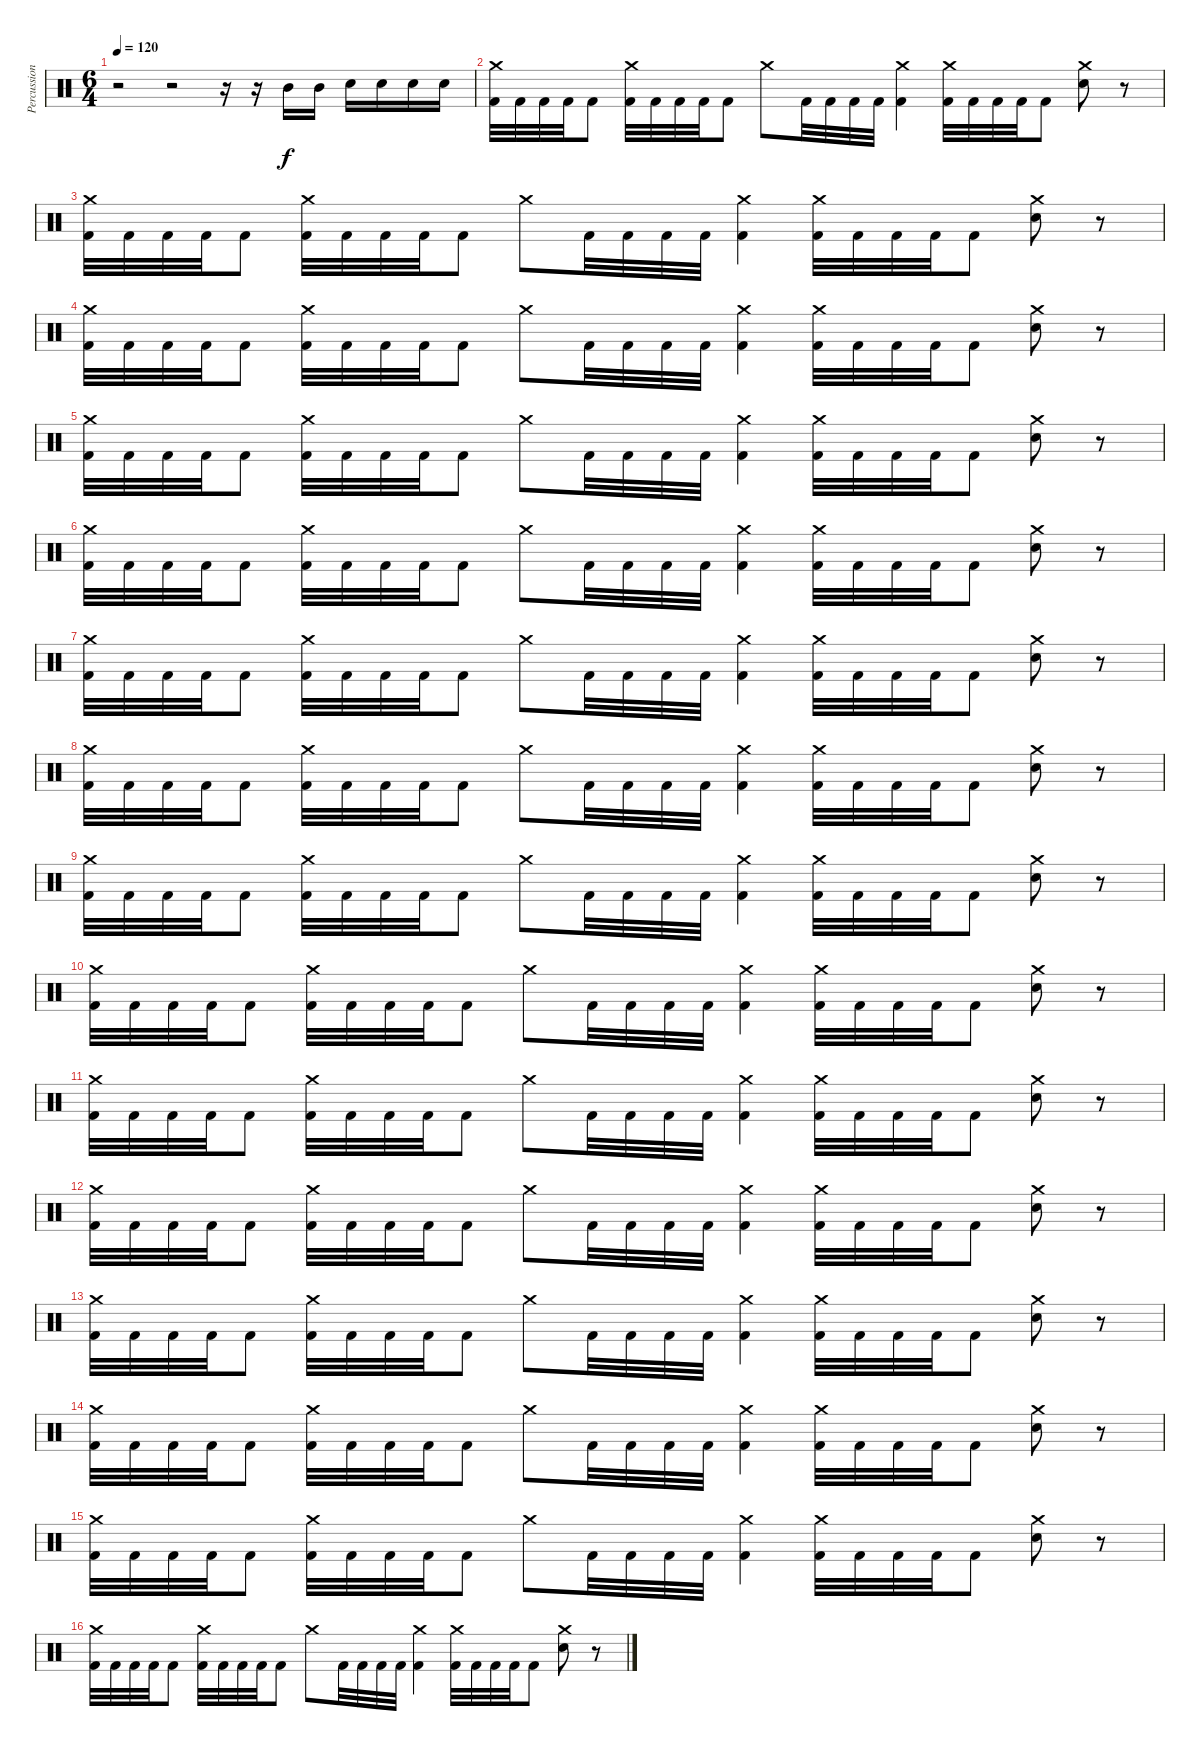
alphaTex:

\track ("Percussion" "Percussion") {instrument percussion}
\staff {score}
\articulation defaults
\ts (6 4)
\tempo 120
\clef neutral
\ks c
r.2{dy f} r.2 r.16 r.16 "Mid Tom (hit)".16 "Mid Tom (hit)".16 "Electric Snare (hit)".16 "Electric Snare (hit)".16 "Electric Snare (hit)".16 "Electric Snare (hit)".16 |
("Crash medium (hit)" "Kick (hit) 2").32 "Kick (hit) 2".32 "Kick (hit) 2".32 "Kick (hit) 2".32 "Kick (hit) 2".8 ("Crash medium (hit)" "Kick (hit) 2").32 "Kick (hit) 2".32 "Kick (hit) 2".32 "Kick (hit) 2".32 "Kick (hit) 2".8 "Crash medium (hit)".8 "Kick (hit) 2".32 "Kick (hit) 2".32 "Kick (hit) 2".32 "Kick (hit) 2".32 ("Crash medium (hit)" "Kick (hit) 2").4 ("Crash medium (hit)" "Kick (hit) 2").32 "Kick (hit) 2".32 "Kick (hit) 2".32 "Kick (hit) 2".32 "Kick (hit) 2".8 ("Crash medium (hit)" "Electric Snare (hit)").8 r.8 |
("Crash medium (hit)" "Kick (hit) 2").32 "Kick (hit) 2".32 "Kick (hit) 2".32 "Kick (hit) 2".32 "Kick (hit) 2".8 ("Crash medium (hit)" "Kick (hit) 2").32 "Kick (hit) 2".32 "Kick (hit) 2".32 "Kick (hit) 2".32 "Kick (hit) 2".8 "Crash medium (hit)".8 "Kick (hit) 2".32 "Kick (hit) 2".32 "Kick (hit) 2".32 "Kick (hit) 2".32 ("Crash medium (hit)" "Kick (hit) 2").4 ("Crash medium (hit)" "Kick (hit) 2").32 "Kick (hit) 2".32 "Kick (hit) 2".32 "Kick (hit) 2".32 "Kick (hit) 2".8 ("Crash medium (hit)" "Electric Snare (hit)").8 r.8 |
("Crash medium (hit)" "Kick (hit) 2").32 "Kick (hit) 2".32 "Kick (hit) 2".32 "Kick (hit) 2".32 "Kick (hit) 2".8 ("Crash medium (hit)" "Kick (hit) 2").32 "Kick (hit) 2".32 "Kick (hit) 2".32 "Kick (hit) 2".32 "Kick (hit) 2".8 "Crash medium (hit)".8 "Kick (hit) 2".32 "Kick (hit) 2".32 "Kick (hit) 2".32 "Kick (hit) 2".32 ("Crash medium (hit)" "Kick (hit) 2").4 ("Crash medium (hit)" "Kick (hit) 2").32 "Kick (hit) 2".32 "Kick (hit) 2".32 "Kick (hit) 2".32 "Kick (hit) 2".8 ("Crash medium (hit)" "Electric Snare (hit)").8 r.8 |
("Crash medium (hit)" "Kick (hit) 2").32 "Kick (hit) 2".32 "Kick (hit) 2".32 "Kick (hit) 2".32 "Kick (hit) 2".8 ("Crash medium (hit)" "Kick (hit) 2").32 "Kick (hit) 2".32 "Kick (hit) 2".32 "Kick (hit) 2".32 "Kick (hit) 2".8 "Crash medium (hit)".8 "Kick (hit) 2".32 "Kick (hit) 2".32 "Kick (hit) 2".32 "Kick (hit) 2".32 ("Crash medium (hit)" "Kick (hit) 2").4 ("Crash medium (hit)" "Kick (hit) 2").32 "Kick (hit) 2".32 "Kick (hit) 2".32 "Kick (hit) 2".32 "Kick (hit) 2".8 ("Crash medium (hit)" "Electric Snare (hit)").8 r.8 |
("Crash medium (hit)" "Kick (hit) 2").32 "Kick (hit) 2".32 "Kick (hit) 2".32 "Kick (hit) 2".32 "Kick (hit) 2".8 ("Crash medium (hit)" "Kick (hit) 2").32 "Kick (hit) 2".32 "Kick (hit) 2".32 "Kick (hit) 2".32 "Kick (hit) 2".8 "Crash medium (hit)".8 "Kick (hit) 2".32 "Kick (hit) 2".32 "Kick (hit) 2".32 "Kick (hit) 2".32 ("Crash medium (hit)" "Kick (hit) 2").4 ("Crash medium (hit)" "Kick (hit) 2").32 "Kick (hit) 2".32 "Kick (hit) 2".32 "Kick (hit) 2".32 "Kick (hit) 2".8 ("Crash medium (hit)" "Electric Snare (hit)").8 r.8 |
("Crash medium (hit)" "Kick (hit) 2").32 "Kick (hit) 2".32 "Kick (hit) 2".32 "Kick (hit) 2".32 "Kick (hit) 2".8 ("Crash medium (hit)" "Kick (hit) 2").32 "Kick (hit) 2".32 "Kick (hit) 2".32 "Kick (hit) 2".32 "Kick (hit) 2".8 "Crash medium (hit)".8 "Kick (hit) 2".32 "Kick (hit) 2".32 "Kick (hit) 2".32 "Kick (hit) 2".32 ("Crash medium (hit)" "Kick (hit) 2").4 ("Crash medium (hit)" "Kick (hit) 2").32 "Kick (hit) 2".32 "Kick (hit) 2".32 "Kick (hit) 2".32 "Kick (hit) 2".8 ("Crash medium (hit)" "Electric Snare (hit)").8 r.8 |
("Crash medium (hit)" "Kick (hit) 2").32 "Kick (hit) 2".32 "Kick (hit) 2".32 "Kick (hit) 2".32 "Kick (hit) 2".8 ("Crash medium (hit)" "Kick (hit) 2").32 "Kick (hit) 2".32 "Kick (hit) 2".32 "Kick (hit) 2".32 "Kick (hit) 2".8 "Crash medium (hit)".8 "Kick (hit) 2".32 "Kick (hit) 2".32 "Kick (hit) 2".32 "Kick (hit) 2".32 ("Crash medium (hit)" "Kick (hit) 2").4 ("Crash medium (hit)" "Kick (hit) 2").32 "Kick (hit) 2".32 "Kick (hit) 2".32 "Kick (hit) 2".32 "Kick (hit) 2".8 ("Crash medium (hit)" "Electric Snare (hit)").8 r.8 |
("Crash medium (hit)" "Kick (hit) 2").32 "Kick (hit) 2".32 "Kick (hit) 2".32 "Kick (hit) 2".32 "Kick (hit) 2".8 ("Crash medium (hit)" "Kick (hit) 2").32 "Kick (hit) 2".32 "Kick (hit) 2".32 "Kick (hit) 2".32 "Kick (hit) 2".8 "Crash medium (hit)".8 "Kick (hit) 2".32 "Kick (hit) 2".32 "Kick (hit) 2".32 "Kick (hit) 2".32 ("Crash medium (hit)" "Kick (hit) 2").4 ("Crash medium (hit)" "Kick (hit) 2").32 "Kick (hit) 2".32 "Kick (hit) 2".32 "Kick (hit) 2".32 "Kick (hit) 2".8 ("Crash medium (hit)" "Electric Snare (hit)").8 r.8 |
("Crash medium (hit)" "Kick (hit) 2").32 "Kick (hit) 2".32 "Kick (hit) 2".32 "Kick (hit) 2".32 "Kick (hit) 2".8 ("Crash medium (hit)" "Kick (hit) 2").32 "Kick (hit) 2".32 "Kick (hit) 2".32 "Kick (hit) 2".32 "Kick (hit) 2".8 "Crash medium (hit)".8 "Kick (hit) 2".32 "Kick (hit) 2".32 "Kick (hit) 2".32 "Kick (hit) 2".32 ("Crash medium (hit)" "Kick (hit) 2").4 ("Crash medium (hit)" "Kick (hit) 2").32 "Kick (hit) 2".32 "Kick (hit) 2".32 "Kick (hit) 2".32 "Kick (hit) 2".8 ("Crash medium (hit)" "Electric Snare (hit)").8 r.8 |
("Crash medium (hit)" "Kick (hit) 2").32 "Kick (hit) 2".32 "Kick (hit) 2".32 "Kick (hit) 2".32 "Kick (hit) 2".8 ("Crash medium (hit)" "Kick (hit) 2").32 "Kick (hit) 2".32 "Kick (hit) 2".32 "Kick (hit) 2".32 "Kick (hit) 2".8 "Crash medium (hit)".8 "Kick (hit) 2".32 "Kick (hit) 2".32 "Kick (hit) 2".32 "Kick (hit) 2".32 ("Crash medium (hit)" "Kick (hit) 2").4 ("Crash medium (hit)" "Kick (hit) 2").32 "Kick (hit) 2".32 "Kick (hit) 2".32 "Kick (hit) 2".32 "Kick (hit) 2".8 ("Crash medium (hit)" "Electric Snare (hit)").8 r.8 |
("Crash medium (hit)" "Kick (hit) 2").32 "Kick (hit) 2".32 "Kick (hit) 2".32 "Kick (hit) 2".32 "Kick (hit) 2".8 ("Crash medium (hit)" "Kick (hit) 2").32 "Kick (hit) 2".32 "Kick (hit) 2".32 "Kick (hit) 2".32 "Kick (hit) 2".8 "Crash medium (hit)".8 "Kick (hit) 2".32 "Kick (hit) 2".32 "Kick (hit) 2".32 "Kick (hit) 2".32 ("Crash medium (hit)" "Kick (hit) 2").4 ("Crash medium (hit)" "Kick (hit) 2").32 "Kick (hit) 2".32 "Kick (hit) 2".32 "Kick (hit) 2".32 "Kick (hit) 2".8 ("Crash medium (hit)" "Electric Snare (hit)").8 r.8 |
("Crash medium (hit)" "Kick (hit) 2").32 "Kick (hit) 2".32 "Kick (hit) 2".32 "Kick (hit) 2".32 "Kick (hit) 2".8 ("Crash medium (hit)" "Kick (hit) 2").32 "Kick (hit) 2".32 "Kick (hit) 2".32 "Kick (hit) 2".32 "Kick (hit) 2".8 "Crash medium (hit)".8 "Kick (hit) 2".32 "Kick (hit) 2".32 "Kick (hit) 2".32 "Kick (hit) 2".32 ("Crash medium (hit)" "Kick (hit) 2").4 ("Crash medium (hit)" "Kick (hit) 2").32 "Kick (hit) 2".32 "Kick (hit) 2".32 "Kick (hit) 2".32 "Kick (hit) 2".8 ("Crash medium (hit)" "Electric Snare (hit)").8 r.8 |
("Crash medium (hit)" "Kick (hit) 2").32 "Kick (hit) 2".32 "Kick (hit) 2".32 "Kick (hit) 2".32 "Kick (hit) 2".8 ("Crash medium (hit)" "Kick (hit) 2").32 "Kick (hit) 2".32 "Kick (hit) 2".32 "Kick (hit) 2".32 "Kick (hit) 2".8 "Crash medium (hit)".8 "Kick (hit) 2".32 "Kick (hit) 2".32 "Kick (hit) 2".32 "Kick (hit) 2".32 ("Crash medium (hit)" "Kick (hit) 2").4 ("Crash medium (hit)" "Kick (hit) 2").32 "Kick (hit) 2".32 "Kick (hit) 2".32 "Kick (hit) 2".32 "Kick (hit) 2".8 ("Crash medium (hit)" "Electric Snare (hit)").8 r.8 |
("Crash medium (hit)" "Kick (hit) 2").32 "Kick (hit) 2".32 "Kick (hit) 2".32 "Kick (hit) 2".32 "Kick (hit) 2".8 ("Crash medium (hit)" "Kick (hit) 2").32 "Kick (hit) 2".32 "Kick (hit) 2".32 "Kick (hit) 2".32 "Kick (hit) 2".8 "Crash medium (hit)".8 "Kick (hit) 2".32 "Kick (hit) 2".32 "Kick (hit) 2".32 "Kick (hit) 2".32 ("Crash medium (hit)" "Kick (hit) 2").4 ("Crash medium (hit)" "Kick (hit) 2").32 "Kick (hit) 2".32 "Kick (hit) 2".32 "Kick (hit) 2".32 "Kick (hit) 2".8 ("Crash medium (hit)" "Electric Snare (hit)").8 r.8 |
("Crash medium (hit)" "Kick (hit) 2").32 "Kick (hit) 2".32 "Kick (hit) 2".32 "Kick (hit) 2".32 "Kick (hit) 2".8 ("Crash medium (hit)" "Kick (hit) 2").32 "Kick (hit) 2".32 "Kick (hit) 2".32 "Kick (hit) 2".32 "Kick (hit) 2".8 "Crash medium (hit)".8 "Kick (hit) 2".32 "Kick (hit) 2".32 "Kick (hit) 2".32 "Kick (hit) 2".32 ("Crash medium (hit)" "Kick (hit) 2").4 ("Crash medium (hit)" "Kick (hit) 2").32 "Kick (hit) 2".32 "Kick (hit) 2".32 "Kick (hit) 2".32 "Kick (hit) 2".8 ("Crash medium (hit)" "Electric Snare (hit)").8 r.8
